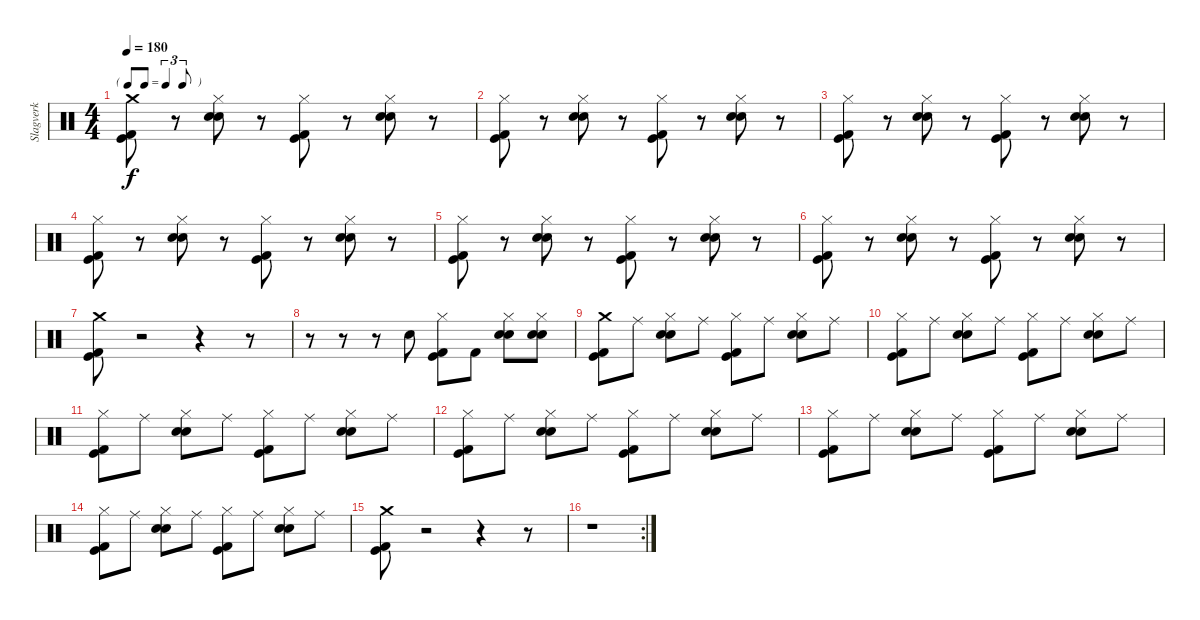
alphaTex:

\track ("Slagverk" "Slagverk") {instrument percussion}
\staff {score}
\articulation defaults
\ts (4 4)
\tf triplet8th
\tempo 180
\clef neutral
\ks c
("Crash medium (hit)" "Kick (hit)" "Kick (hit) 2").8{dy f} r.8 ("Hi-Hat (closed)" "Electric Snare (hit)" "Snare (hit) 2").8 r.8 ("Hi-Hat (closed)" "Kick (hit)" "Kick (hit) 2").8 r.8 ("Hi-Hat (closed)" "Electric Snare (hit)" "Snare (hit) 2").8 r.8 |
("Hi-Hat (closed)" "Kick (hit)" "Kick (hit) 2").8 r.8 ("Hi-Hat (closed)" "Electric Snare (hit)" "Snare (hit) 2").8 r.8 ("Hi-Hat (closed)" "Kick (hit)" "Kick (hit) 2").8 r.8 ("Hi-Hat (closed)" "Electric Snare (hit)" "Snare (hit) 2").8 r.8 |
("Hi-Hat (closed)" "Kick (hit)" "Kick (hit) 2").8 r.8 ("Hi-Hat (closed)" "Electric Snare (hit)" "Snare (hit) 2").8 r.8 ("Hi-Hat (closed)" "Kick (hit)" "Kick (hit) 2").8 r.8 ("Hi-Hat (closed)" "Electric Snare (hit)" "Snare (hit) 2").8 r.8 |
("Hi-Hat (closed)" "Kick (hit)" "Kick (hit) 2").8 r.8 ("Hi-Hat (closed)" "Electric Snare (hit)" "Snare (hit) 2").8 r.8 ("Hi-Hat (closed)" "Kick (hit)" "Kick (hit) 2").8 r.8 ("Hi-Hat (closed)" "Electric Snare (hit)" "Snare (hit) 2").8 r.8 |
("Hi-Hat (closed)" "Kick (hit)" "Kick (hit) 2").8 r.8 ("Hi-Hat (closed)" "Electric Snare (hit)" "Snare (hit) 2").8 r.8 ("Hi-Hat (closed)" "Kick (hit)" "Kick (hit) 2").8 r.8 ("Hi-Hat (closed)" "Electric Snare (hit)" "Snare (hit) 2").8 r.8 |
("Hi-Hat (closed)" "Kick (hit)" "Kick (hit) 2").8 r.8 ("Hi-Hat (closed)" "Electric Snare (hit)" "Snare (hit) 2").8 r.8 ("Hi-Hat (closed)" "Kick (hit)" "Kick (hit) 2").8 r.8 ("Hi-Hat (closed)" "Electric Snare (hit)" "Snare (hit) 2").8 r.8 |
("Crash medium (hit)" "Kick (hit)" "Kick (hit) 2").8 r.2 r.4 r.8 |
r.8 r.8 r.8 "Electric Snare (hit)".8 ("Hi-Hat (closed)" "Kick (hit)" "Kick (hit) 2").8 "Kick (hit) 2".8 ("Hi-Hat (closed)" "Electric Snare (hit)" "Snare (hit) 2").8 ("Hi-Hat (closed)" "Electric Snare (hit)" "Snare (hit) 2").8 |
("Crash medium (hit)" "Kick (hit)" "Kick (hit) 2").8 "Ride (middle)".8 ("Hi-Hat (closed)" "Electric Snare (hit)" "Snare (hit) 2").8 "Ride (middle)".8 ("Hi-Hat (closed)" "Kick (hit)" "Kick (hit) 2").8 "Ride (middle)".8 ("Hi-Hat (closed)" "Electric Snare (hit)" "Snare (hit) 2").8 "Ride (middle)".8 |
("Hi-Hat (closed)" "Kick (hit)" "Kick (hit) 2").8 "Ride (middle)".8 ("Hi-Hat (closed)" "Electric Snare (hit)" "Snare (hit) 2").8 "Ride (middle)".8 ("Hi-Hat (closed)" "Kick (hit)" "Kick (hit) 2").8 "Ride (middle)".8 ("Hi-Hat (closed)" "Electric Snare (hit)" "Snare (hit) 2").8 "Ride (middle)".8 |
("Hi-Hat (closed)" "Kick (hit)" "Kick (hit) 2").8 "Ride (middle)".8 ("Hi-Hat (closed)" "Electric Snare (hit)" "Snare (hit) 2").8 "Ride (middle)".8 ("Hi-Hat (closed)" "Kick (hit)" "Kick (hit) 2").8 "Ride (middle)".8 ("Hi-Hat (closed)" "Electric Snare (hit)" "Snare (hit) 2").8 "Ride (middle)".8 |
("Hi-Hat (closed)" "Kick (hit)" "Kick (hit) 2").8 "Ride (middle)".8 ("Hi-Hat (closed)" "Electric Snare (hit)" "Snare (hit) 2").8 "Ride (middle)".8 ("Hi-Hat (closed)" "Kick (hit)" "Kick (hit) 2").8 "Ride (middle)".8 ("Hi-Hat (closed)" "Electric Snare (hit)" "Snare (hit) 2").8 "Ride (middle)".8 |
("Hi-Hat (closed)" "Kick (hit)" "Kick (hit) 2").8 "Ride (middle)".8 ("Hi-Hat (closed)" "Electric Snare (hit)" "Snare (hit) 2").8 "Ride (middle)".8 ("Hi-Hat (closed)" "Kick (hit)" "Kick (hit) 2").8 "Ride (middle)".8 ("Hi-Hat (closed)" "Electric Snare (hit)" "Snare (hit) 2").8 "Ride (middle)".8 |
("Hi-Hat (closed)" "Kick (hit)" "Kick (hit) 2").8 "Ride (middle)".8 ("Hi-Hat (closed)" "Electric Snare (hit)" "Snare (hit) 2").8 "Ride (middle)".8 ("Hi-Hat (closed)" "Kick (hit)" "Kick (hit) 2").8 "Ride (middle)".8 ("Hi-Hat (closed)" "Electric Snare (hit)" "Snare (hit) 2").8 "Ride (middle)".8 |
("Crash medium (hit)" "Kick (hit)" "Kick (hit) 2").8 r.2 r.4 r.8 |
\rc 2
r.1
